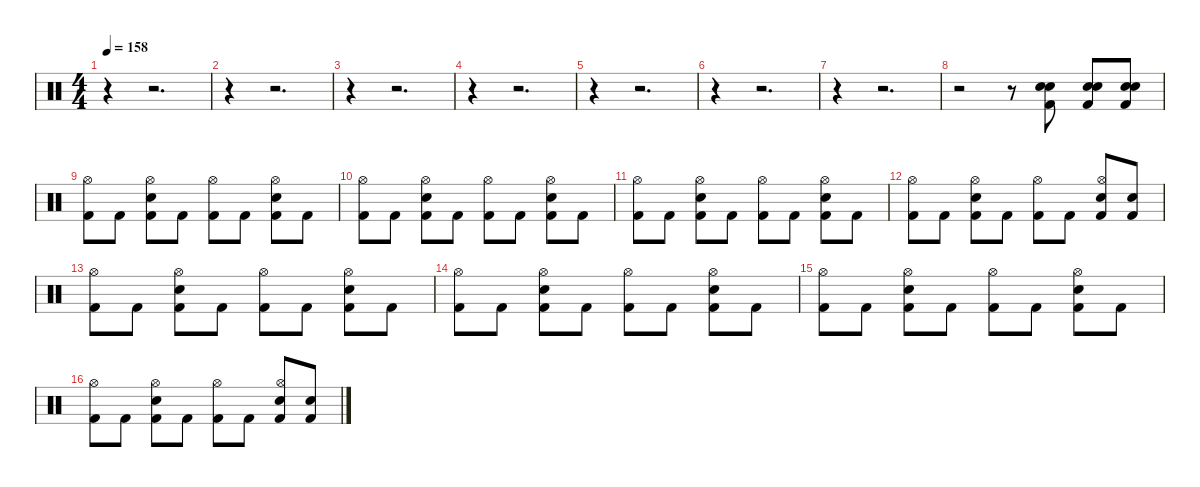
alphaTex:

\defaultSystemsLayout 4
\hideDynamics
\bracketExtendMode nobrackets
\singleTrackTrackNamePolicy hidden
\multiTrackTrackNamePolicy hidden
\firstSystemTrackNameMode fullname
\firstSystemTrackNameOrientation horizontal
\otherSystemsTrackNameOrientation horizontal
\track ("Drums" "drm.") {instrument percussion}
\staff {score}
\articulation defaults
\ts (4 4)
\beaming (8 2 2 2 2)
\tempo 158
\clef neutral
\ks c
r.4{dy f beam Down} r.2{d beam Down} |
r.4{beam Down} r.2{d beam Down} |
r.4{beam Down} r.2{d beam Down} |
r.4{beam Down} r.2{d beam Down} |
r.4{beam Down} r.2{d beam Down} |
r.4{beam Down} r.2{d beam Down} |
r.4{beam Down} r.2{d beam Down} |
r.2{beam Down} r.8{beam Down} ("Kick (hit) 2" "Snare (hit) 2" "Snare (hit) 2").8{beam Up} ("Kick (hit) 2" "Snare (hit) 2" "Snare (hit) 2").8{beam Up} ("Kick (hit) 2" "Snare (hit) 2" "Snare (hit) 2").8{beam Up} |
("Hi-Hat (open)" "Kick (hit) 2").8{beam Down} "Kick (hit) 2".8{beam Down} ("Hi-Hat (open)" "Snare (hit) 2" "Kick (hit) 2").8{beam Down} "Kick (hit) 2".8{beam Down} ("Hi-Hat (open)" "Kick (hit) 2").8{beam Down} "Kick (hit) 2".8{beam Down} ("Hi-Hat (open)" "Kick (hit) 2" "Snare (hit) 2").8{beam Down} "Kick (hit) 2".8{beam Down} |
("Hi-Hat (open)" "Kick (hit) 2").8{beam Down} "Kick (hit) 2".8{beam Down} ("Hi-Hat (open)" "Snare (hit) 2" "Kick (hit) 2").8{beam Down} "Kick (hit) 2".8{beam Down} ("Hi-Hat (open)" "Kick (hit) 2").8{beam Down} "Kick (hit) 2".8{beam Down} ("Hi-Hat (open)" "Kick (hit) 2" "Snare (hit) 2").8{beam Down} "Kick (hit) 2".8{beam Down} |
("Hi-Hat (open)" "Kick (hit) 2").8{beam Down} "Kick (hit) 2".8{beam Down} ("Hi-Hat (open)" "Snare (hit) 2" "Kick (hit) 2").8{beam Down} "Kick (hit) 2".8{beam Down} ("Hi-Hat (open)" "Kick (hit) 2").8{beam Down} "Kick (hit) 2".8{beam Down} ("Hi-Hat (open)" "Kick (hit) 2" "Snare (hit) 2").8{beam Down} "Kick (hit) 2".8{beam Down} |
("Hi-Hat (open)" "Kick (hit) 2").8{beam Down} "Kick (hit) 2".8{beam Down} ("Hi-Hat (open)" "Snare (hit) 2" "Kick (hit) 2").8{beam Down} "Kick (hit) 2".8{beam Down} ("Hi-Hat (open)" "Kick (hit) 2").8{beam Down} "Kick (hit) 2".8{beam Down} ("Hi-Hat (open)" "Kick (hit) 2" "Snare (hit) 2").8{beam Up} ("Snare (hit) 2" "Kick (hit) 2").8{beam Up} |
("Hi-Hat (open)" "Kick (hit) 2").8{beam Down} "Kick (hit) 2".8{beam Down} ("Hi-Hat (open)" "Snare (hit) 2" "Kick (hit) 2").8{beam Down} "Kick (hit) 2".8{beam Down} ("Hi-Hat (open)" "Kick (hit) 2").8{beam Down} "Kick (hit) 2".8{beam Down} ("Hi-Hat (open)" "Kick (hit) 2" "Snare (hit) 2").8{beam Down} "Kick (hit) 2".8{beam Down} |
("Hi-Hat (open)" "Kick (hit) 2").8{beam Down} "Kick (hit) 2".8{beam Down} ("Hi-Hat (open)" "Snare (hit) 2" "Kick (hit) 2").8{beam Down} "Kick (hit) 2".8{beam Down} ("Hi-Hat (open)" "Kick (hit) 2").8{beam Down} "Kick (hit) 2".8{beam Down} ("Hi-Hat (open)" "Kick (hit) 2" "Snare (hit) 2").8{beam Down} "Kick (hit) 2".8{beam Down} |
("Hi-Hat (open)" "Kick (hit) 2").8{beam Down} "Kick (hit) 2".8{beam Down} ("Hi-Hat (open)" "Snare (hit) 2" "Kick (hit) 2").8{beam Down} "Kick (hit) 2".8{beam Down} ("Hi-Hat (open)" "Kick (hit) 2").8{beam Down} "Kick (hit) 2".8{beam Down} ("Hi-Hat (open)" "Kick (hit) 2" "Snare (hit) 2").8{beam Down} "Kick (hit) 2".8{beam Down} |
("Hi-Hat (open)" "Kick (hit) 2").8{beam Down} "Kick (hit) 2".8{beam Down} ("Hi-Hat (open)" "Snare (hit) 2" "Kick (hit) 2").8{beam Down} "Kick (hit) 2".8{beam Down} ("Hi-Hat (open)" "Kick (hit) 2").8{beam Down} "Kick (hit) 2".8{beam Down} ("Hi-Hat (open)" "Kick (hit) 2" "Snare (hit) 2").8{beam Up} ("Snare (hit) 2" "Kick (hit) 2").8{beam Up}
